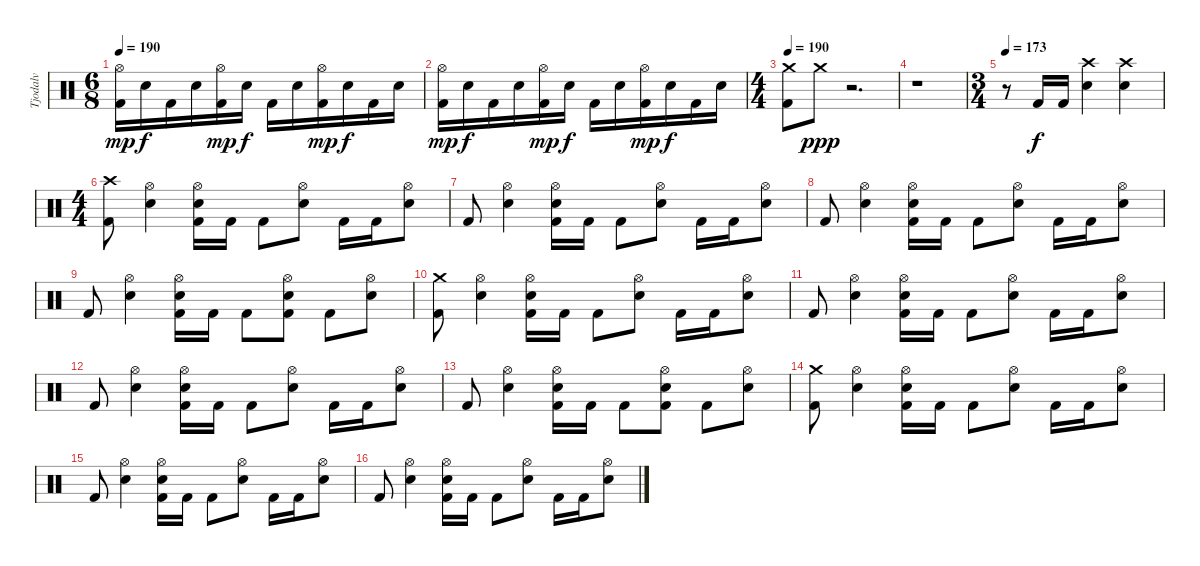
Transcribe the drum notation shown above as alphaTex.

\track ("Tjodalv" "Tjodalv") {instrument percussion}
\staff {score}
\articulation defaults
\ts (6 8)
\tempo 190
\clef neutral
\ks c
("Hi-Hat (open)" "Kick (hit) 2").16{dy mp} "Electric Snare (hit)".16{dy f} "Kick (hit) 2".16 "Electric Snare (hit)".16 ("Hi-Hat (open)" "Kick (hit) 2").16{dy mp} "Electric Snare (hit)".16{dy f} "Kick (hit) 2".16 "Electric Snare (hit)".16 ("Hi-Hat (open)" "Kick (hit) 2").16{dy mp} "Electric Snare (hit)".16{dy f} "Kick (hit) 2".16 "Electric Snare (hit)".16 |
("Hi-Hat (open)" "Kick (hit) 2").16{dy mp} "Electric Snare (hit)".16{dy f} "Kick (hit) 2".16 "Electric Snare (hit)".16 ("Hi-Hat (open)" "Kick (hit) 2").16{dy mp} "Electric Snare (hit)".16{dy f} "Kick (hit) 2".16 "Electric Snare (hit)".16 ("Hi-Hat (open)" "Kick (hit) 2").16{dy mp} "Electric Snare (hit)".16{dy f} "Kick (hit) 2".16 "Electric Snare (hit)".16 |
\ts (4 4)
\tempo 190
("Crash medium (hit)" "Kick (hit) 2").8 "Crash medium (hit)".8{dy ppp} r.2{d} |
r.1 |
\ts (3 4)
\tempo 173
r.8 "Kick (hit) 2".16{dy f} "Kick (hit) 2".16 ("Crash high (hit)" "Electric Snare (hit)").4 ("Crash high (hit)" "Electric Snare (hit)").4 |
\ts (4 4)
("Crash high (hit)" "Kick (hit) 2").8 ("Hi-Hat (open)" "Electric Snare (hit)").4 ("Hi-Hat (open)" "Electric Snare (hit)" "Kick (hit) 2").16 "Kick (hit) 2".16 "Kick (hit) 2".8 ("Hi-Hat (open)" "Electric Snare (hit)").8 "Kick (hit) 2".16 "Kick (hit) 2".16 ("Hi-Hat (open)" "Electric Snare (hit)").8 |
"Kick (hit) 2".8 ("Hi-Hat (open)" "Electric Snare (hit)").4 ("Hi-Hat (open)" "Electric Snare (hit)" "Kick (hit) 2").16 "Kick (hit) 2".16 "Kick (hit) 2".8 ("Hi-Hat (open)" "Electric Snare (hit)").8 "Kick (hit) 2".16 "Kick (hit) 2".16 ("Hi-Hat (open)" "Electric Snare (hit)").8 |
"Kick (hit) 2".8 ("Hi-Hat (open)" "Electric Snare (hit)").4 ("Hi-Hat (open)" "Electric Snare (hit)" "Kick (hit) 2").16 "Kick (hit) 2".16 "Kick (hit) 2".8 ("Hi-Hat (open)" "Electric Snare (hit)").8 "Kick (hit) 2".16 "Kick (hit) 2".16 ("Hi-Hat (open)" "Electric Snare (hit)").8 |
"Kick (hit) 2".8 ("Hi-Hat (open)" "Electric Snare (hit)").4 ("Hi-Hat (open)" "Electric Snare (hit)" "Kick (hit) 2").16 "Kick (hit) 2".16 "Kick (hit) 2".8 ("Hi-Hat (open)" "Electric Snare (hit)" "Kick (hit) 2").8 "Kick (hit) 2".8 ("Hi-Hat (open)" "Electric Snare (hit)").8 |
("Crash medium (hit)" "Kick (hit) 2").8 ("Hi-Hat (open)" "Electric Snare (hit)").4 ("Hi-Hat (open)" "Electric Snare (hit)" "Kick (hit) 2").16 "Kick (hit) 2".16 "Kick (hit) 2".8 ("Hi-Hat (open)" "Electric Snare (hit)").8 "Kick (hit) 2".16 "Kick (hit) 2".16 ("Hi-Hat (open)" "Electric Snare (hit)").8 |
"Kick (hit) 2".8 ("Hi-Hat (open)" "Electric Snare (hit)").4 ("Hi-Hat (open)" "Electric Snare (hit)" "Kick (hit) 2").16 "Kick (hit) 2".16 "Kick (hit) 2".8 ("Hi-Hat (open)" "Electric Snare (hit)").8 "Kick (hit) 2".16 "Kick (hit) 2".16 ("Hi-Hat (open)" "Electric Snare (hit)").8 |
"Kick (hit) 2".8 ("Hi-Hat (open)" "Electric Snare (hit)").4 ("Hi-Hat (open)" "Electric Snare (hit)" "Kick (hit) 2").16 "Kick (hit) 2".16 "Kick (hit) 2".8 ("Hi-Hat (open)" "Electric Snare (hit)").8 "Kick (hit) 2".16 "Kick (hit) 2".16 ("Hi-Hat (open)" "Electric Snare (hit)").8 |
"Kick (hit) 2".8 ("Hi-Hat (open)" "Electric Snare (hit)").4 ("Hi-Hat (open)" "Electric Snare (hit)" "Kick (hit) 2").16 "Kick (hit) 2".16 "Kick (hit) 2".8 ("Hi-Hat (open)" "Electric Snare (hit)" "Kick (hit) 2").8 "Kick (hit) 2".8 ("Hi-Hat (open)" "Electric Snare (hit)").8 |
("Crash medium (hit)" "Kick (hit) 2").8 ("Hi-Hat (open)" "Electric Snare (hit)").4 ("Hi-Hat (open)" "Electric Snare (hit)" "Kick (hit) 2").16 "Kick (hit) 2".16 "Kick (hit) 2".8 ("Hi-Hat (open)" "Electric Snare (hit)").8 "Kick (hit) 2".16 "Kick (hit) 2".16 ("Hi-Hat (open)" "Electric Snare (hit)").8 |
"Kick (hit) 2".8 ("Hi-Hat (open)" "Electric Snare (hit)").4 ("Hi-Hat (open)" "Electric Snare (hit)" "Kick (hit) 2").16 "Kick (hit) 2".16 "Kick (hit) 2".8 ("Hi-Hat (open)" "Electric Snare (hit)").8 "Kick (hit) 2".16 "Kick (hit) 2".16 ("Hi-Hat (open)" "Electric Snare (hit)").8 |
"Kick (hit) 2".8 ("Hi-Hat (open)" "Electric Snare (hit)").4 ("Hi-Hat (open)" "Electric Snare (hit)" "Kick (hit) 2").16 "Kick (hit) 2".16 "Kick (hit) 2".8 ("Hi-Hat (open)" "Electric Snare (hit)").8 "Kick (hit) 2".16 "Kick (hit) 2".16 ("Hi-Hat (open)" "Electric Snare (hit)").8
